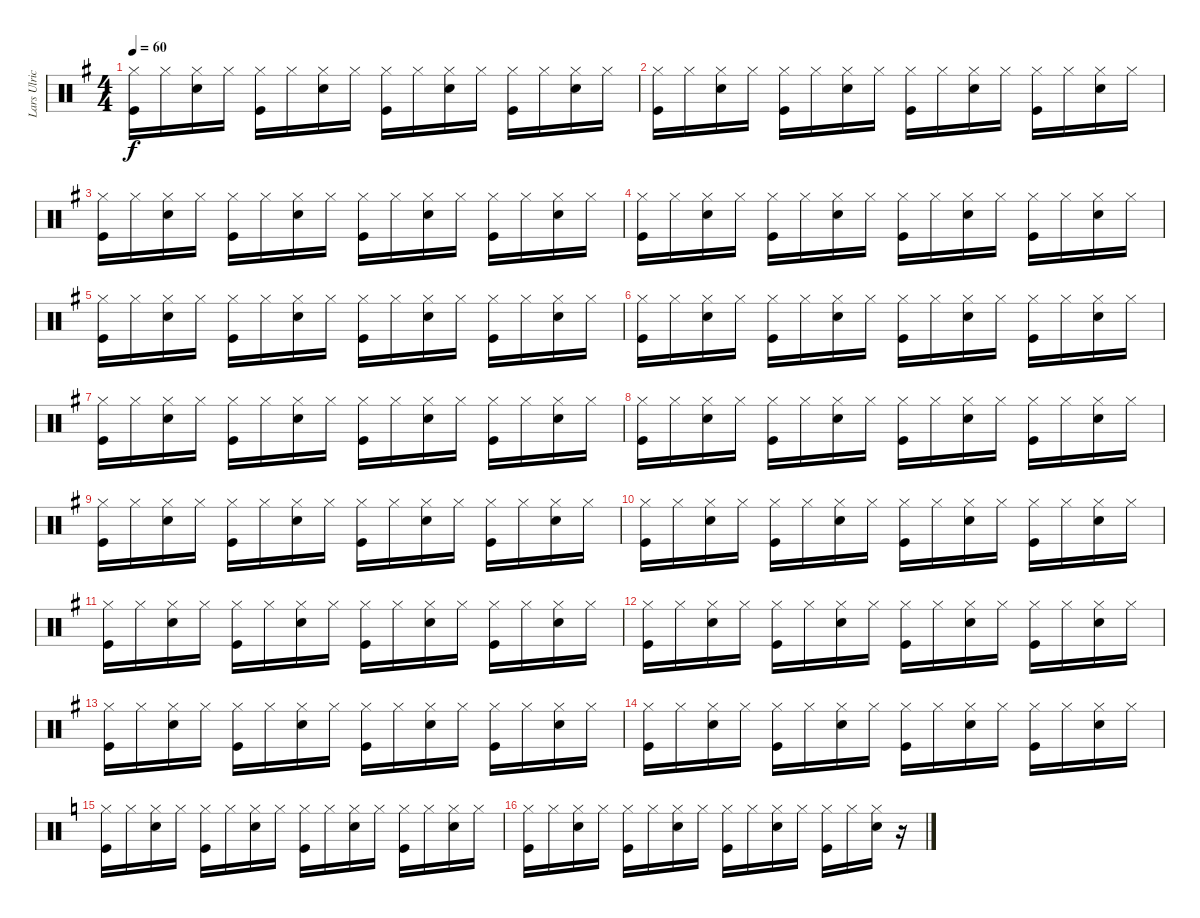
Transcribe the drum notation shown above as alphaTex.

\track ("Lars Ulrich [Drums]" "Lars Ulric") {instrument percussion}
\staff {score}
\articulation defaults
\ts (4 4)
\tempo 60
\clef neutral
\ks g
("Kick (hit)" "Hi-Hat (closed)").16{dy f} "Hi-Hat (closed)".16 ("Electric Snare (hit)" "Hi-Hat (closed)").16 "Hi-Hat (closed)".16 ("Kick (hit)" "Hi-Hat (closed)").16 "Hi-Hat (closed)".16 ("Electric Snare (hit)" "Hi-Hat (closed)").16 "Hi-Hat (closed)".16 ("Kick (hit)" "Hi-Hat (closed)").16 "Hi-Hat (closed)".16 ("Electric Snare (hit)" "Hi-Hat (closed)").16 "Hi-Hat (closed)".16 ("Kick (hit)" "Hi-Hat (closed)").16 "Hi-Hat (closed)".16 ("Electric Snare (hit)" "Hi-Hat (closed)").16 "Hi-Hat (closed)".16 |
("Kick (hit)" "Hi-Hat (closed)").16 "Hi-Hat (closed)".16 ("Electric Snare (hit)" "Hi-Hat (closed)").16 "Hi-Hat (closed)".16 ("Kick (hit)" "Hi-Hat (closed)").16 "Hi-Hat (closed)".16 ("Electric Snare (hit)" "Hi-Hat (closed)").16 "Hi-Hat (closed)".16 ("Kick (hit)" "Hi-Hat (closed)").16 "Hi-Hat (closed)".16 ("Electric Snare (hit)" "Hi-Hat (closed)").16 "Hi-Hat (closed)".16 ("Kick (hit)" "Hi-Hat (closed)").16 "Hi-Hat (closed)".16 ("Electric Snare (hit)" "Hi-Hat (closed)").16 "Hi-Hat (closed)".16 |
("Kick (hit)" "Hi-Hat (closed)").16 "Hi-Hat (closed)".16 ("Electric Snare (hit)" "Hi-Hat (closed)").16 "Hi-Hat (closed)".16 ("Kick (hit)" "Hi-Hat (closed)").16 "Hi-Hat (closed)".16 ("Electric Snare (hit)" "Hi-Hat (closed)").16 "Hi-Hat (closed)".16 ("Kick (hit)" "Hi-Hat (closed)").16 "Hi-Hat (closed)".16 ("Electric Snare (hit)" "Hi-Hat (closed)").16 "Hi-Hat (closed)".16 ("Kick (hit)" "Hi-Hat (closed)").16 "Hi-Hat (closed)".16 ("Electric Snare (hit)" "Hi-Hat (closed)").16 "Hi-Hat (closed)".16 |
("Kick (hit)" "Hi-Hat (closed)").16 "Hi-Hat (closed)".16 ("Electric Snare (hit)" "Hi-Hat (closed)").16 "Hi-Hat (closed)".16 ("Kick (hit)" "Hi-Hat (closed)").16 "Hi-Hat (closed)".16 ("Electric Snare (hit)" "Hi-Hat (closed)").16 "Hi-Hat (closed)".16 ("Kick (hit)" "Hi-Hat (closed)").16 "Hi-Hat (closed)".16 ("Electric Snare (hit)" "Hi-Hat (closed)").16 "Hi-Hat (closed)".16 ("Kick (hit)" "Hi-Hat (closed)").16 "Hi-Hat (closed)".16 ("Electric Snare (hit)" "Hi-Hat (closed)").16 "Hi-Hat (closed)".16 |
("Kick (hit)" "Hi-Hat (closed)").16 "Hi-Hat (closed)".16 ("Electric Snare (hit)" "Hi-Hat (closed)").16 "Hi-Hat (closed)".16 ("Kick (hit)" "Hi-Hat (closed)").16 "Hi-Hat (closed)".16 ("Electric Snare (hit)" "Hi-Hat (closed)").16 "Hi-Hat (closed)".16 ("Kick (hit)" "Hi-Hat (closed)").16 "Hi-Hat (closed)".16 ("Electric Snare (hit)" "Hi-Hat (closed)").16 "Hi-Hat (closed)".16 ("Kick (hit)" "Hi-Hat (closed)").16 "Hi-Hat (closed)".16 ("Electric Snare (hit)" "Hi-Hat (closed)").16 "Hi-Hat (closed)".16 |
("Kick (hit)" "Hi-Hat (closed)").16 "Hi-Hat (closed)".16 ("Electric Snare (hit)" "Hi-Hat (closed)").16 "Hi-Hat (closed)".16 ("Kick (hit)" "Hi-Hat (closed)").16 "Hi-Hat (closed)".16 ("Electric Snare (hit)" "Hi-Hat (closed)").16 "Hi-Hat (closed)".16 ("Kick (hit)" "Hi-Hat (closed)").16 "Hi-Hat (closed)".16 ("Electric Snare (hit)" "Hi-Hat (closed)").16 "Hi-Hat (closed)".16 ("Kick (hit)" "Hi-Hat (closed)").16 "Hi-Hat (closed)".16 ("Electric Snare (hit)" "Hi-Hat (closed)").16 "Hi-Hat (closed)".16 |
("Kick (hit)" "Hi-Hat (closed)").16 "Hi-Hat (closed)".16 ("Electric Snare (hit)" "Hi-Hat (closed)").16 "Hi-Hat (closed)".16 ("Kick (hit)" "Hi-Hat (closed)").16 "Hi-Hat (closed)".16 ("Electric Snare (hit)" "Hi-Hat (closed)").16 "Hi-Hat (closed)".16 ("Kick (hit)" "Hi-Hat (closed)").16 "Hi-Hat (closed)".16 ("Electric Snare (hit)" "Hi-Hat (closed)").16 "Hi-Hat (closed)".16 ("Kick (hit)" "Hi-Hat (closed)").16 "Hi-Hat (closed)".16 ("Electric Snare (hit)" "Hi-Hat (closed)").16 "Hi-Hat (closed)".16 |
("Kick (hit)" "Hi-Hat (closed)").16 "Hi-Hat (closed)".16 ("Electric Snare (hit)" "Hi-Hat (closed)").16 "Hi-Hat (closed)".16 ("Kick (hit)" "Hi-Hat (closed)").16 "Hi-Hat (closed)".16 ("Electric Snare (hit)" "Hi-Hat (closed)").16 "Hi-Hat (closed)".16 ("Kick (hit)" "Hi-Hat (closed)").16 "Hi-Hat (closed)".16 ("Electric Snare (hit)" "Hi-Hat (closed)").16 "Hi-Hat (closed)".16 ("Kick (hit)" "Hi-Hat (closed)").16 "Hi-Hat (closed)".16 ("Electric Snare (hit)" "Hi-Hat (closed)").16 "Hi-Hat (closed)".16 |
("Kick (hit)" "Hi-Hat (closed)").16 "Hi-Hat (closed)".16 ("Electric Snare (hit)" "Hi-Hat (closed)").16 "Hi-Hat (closed)".16 ("Kick (hit)" "Hi-Hat (closed)").16 "Hi-Hat (closed)".16 ("Electric Snare (hit)" "Hi-Hat (closed)").16 "Hi-Hat (closed)".16 ("Kick (hit)" "Hi-Hat (closed)").16 "Hi-Hat (closed)".16 ("Electric Snare (hit)" "Hi-Hat (closed)").16 "Hi-Hat (closed)".16 ("Kick (hit)" "Hi-Hat (closed)").16 "Hi-Hat (closed)".16 ("Electric Snare (hit)" "Hi-Hat (closed)").16 "Hi-Hat (closed)".16 |
("Kick (hit)" "Hi-Hat (closed)").16 "Hi-Hat (closed)".16 ("Electric Snare (hit)" "Hi-Hat (closed)").16 "Hi-Hat (closed)".16 ("Kick (hit)" "Hi-Hat (closed)").16 "Hi-Hat (closed)".16 ("Electric Snare (hit)" "Hi-Hat (closed)").16 "Hi-Hat (closed)".16 ("Kick (hit)" "Hi-Hat (closed)").16 "Hi-Hat (closed)".16 ("Electric Snare (hit)" "Hi-Hat (closed)").16 "Hi-Hat (closed)".16 ("Kick (hit)" "Hi-Hat (closed)").16 "Hi-Hat (closed)".16 ("Electric Snare (hit)" "Hi-Hat (closed)").16 "Hi-Hat (closed)".16 |
("Kick (hit)" "Hi-Hat (closed)").16 "Hi-Hat (closed)".16 ("Electric Snare (hit)" "Hi-Hat (closed)").16 "Hi-Hat (closed)".16 ("Kick (hit)" "Hi-Hat (closed)").16 "Hi-Hat (closed)".16 ("Electric Snare (hit)" "Hi-Hat (closed)").16 "Hi-Hat (closed)".16 ("Kick (hit)" "Hi-Hat (closed)").16 "Hi-Hat (closed)".16 ("Electric Snare (hit)" "Hi-Hat (closed)").16 "Hi-Hat (closed)".16 ("Kick (hit)" "Hi-Hat (closed)").16 "Hi-Hat (closed)".16 ("Electric Snare (hit)" "Hi-Hat (closed)").16 "Hi-Hat (closed)".16 |
("Kick (hit)" "Hi-Hat (closed)").16 "Hi-Hat (closed)".16 ("Electric Snare (hit)" "Hi-Hat (closed)").16 "Hi-Hat (closed)".16 ("Kick (hit)" "Hi-Hat (closed)").16 "Hi-Hat (closed)".16 ("Electric Snare (hit)" "Hi-Hat (closed)").16 "Hi-Hat (closed)".16 ("Kick (hit)" "Hi-Hat (closed)").16 "Hi-Hat (closed)".16 ("Electric Snare (hit)" "Hi-Hat (closed)").16 "Hi-Hat (closed)".16 ("Kick (hit)" "Hi-Hat (closed)").16 "Hi-Hat (closed)".16 ("Electric Snare (hit)" "Hi-Hat (closed)").16 "Hi-Hat (closed)".16 |
("Kick (hit)" "Hi-Hat (closed)").16 "Hi-Hat (closed)".16 ("Electric Snare (hit)" "Hi-Hat (closed)").16 "Hi-Hat (closed)".16 ("Kick (hit)" "Hi-Hat (closed)").16 "Hi-Hat (closed)".16 ("Electric Snare (hit)" "Hi-Hat (closed)").16 "Hi-Hat (closed)".16 ("Kick (hit)" "Hi-Hat (closed)").16 "Hi-Hat (closed)".16 ("Electric Snare (hit)" "Hi-Hat (closed)").16 "Hi-Hat (closed)".16 ("Kick (hit)" "Hi-Hat (closed)").16 "Hi-Hat (closed)".16 ("Electric Snare (hit)" "Hi-Hat (closed)").16 "Hi-Hat (closed)".16 |
("Kick (hit)" "Hi-Hat (closed)").16 "Hi-Hat (closed)".16 ("Electric Snare (hit)" "Hi-Hat (closed)").16 "Hi-Hat (closed)".16 ("Kick (hit)" "Hi-Hat (closed)").16 "Hi-Hat (closed)".16 ("Electric Snare (hit)" "Hi-Hat (closed)").16 "Hi-Hat (closed)".16 ("Kick (hit)" "Hi-Hat (closed)").16 "Hi-Hat (closed)".16 ("Electric Snare (hit)" "Hi-Hat (closed)").16 "Hi-Hat (closed)".16 ("Kick (hit)" "Hi-Hat (closed)").16 "Hi-Hat (closed)".16 ("Electric Snare (hit)" "Hi-Hat (closed)").16 "Hi-Hat (closed)".16 |
\ks c
("Kick (hit)" "Hi-Hat (closed)").16 "Hi-Hat (closed)".16 ("Electric Snare (hit)" "Hi-Hat (closed)").16 "Hi-Hat (closed)".16 ("Kick (hit)" "Hi-Hat (closed)").16 "Hi-Hat (closed)".16 ("Electric Snare (hit)" "Hi-Hat (closed)").16 "Hi-Hat (closed)".16 ("Kick (hit)" "Hi-Hat (closed)").16 "Hi-Hat (closed)".16 ("Electric Snare (hit)" "Hi-Hat (closed)").16 "Hi-Hat (closed)".16 ("Kick (hit)" "Hi-Hat (closed)").16 "Hi-Hat (closed)".16 ("Electric Snare (hit)" "Hi-Hat (closed)").16 "Hi-Hat (closed)".16 |
("Kick (hit)" "Hi-Hat (closed)").16 "Hi-Hat (closed)".16 ("Electric Snare (hit)" "Hi-Hat (closed)").16 "Hi-Hat (closed)".16 ("Kick (hit)" "Hi-Hat (closed)").16 "Hi-Hat (closed)".16 ("Electric Snare (hit)" "Hi-Hat (closed)").16 "Hi-Hat (closed)".16 ("Kick (hit)" "Hi-Hat (closed)").16 "Hi-Hat (closed)".16 ("Electric Snare (hit)" "Hi-Hat (closed)").16 "Hi-Hat (closed)".16 ("Kick (hit)" "Hi-Hat (closed)").16 "Hi-Hat (closed)".16 ("Electric Snare (hit)" "Hi-Hat (closed)").16 r.16
